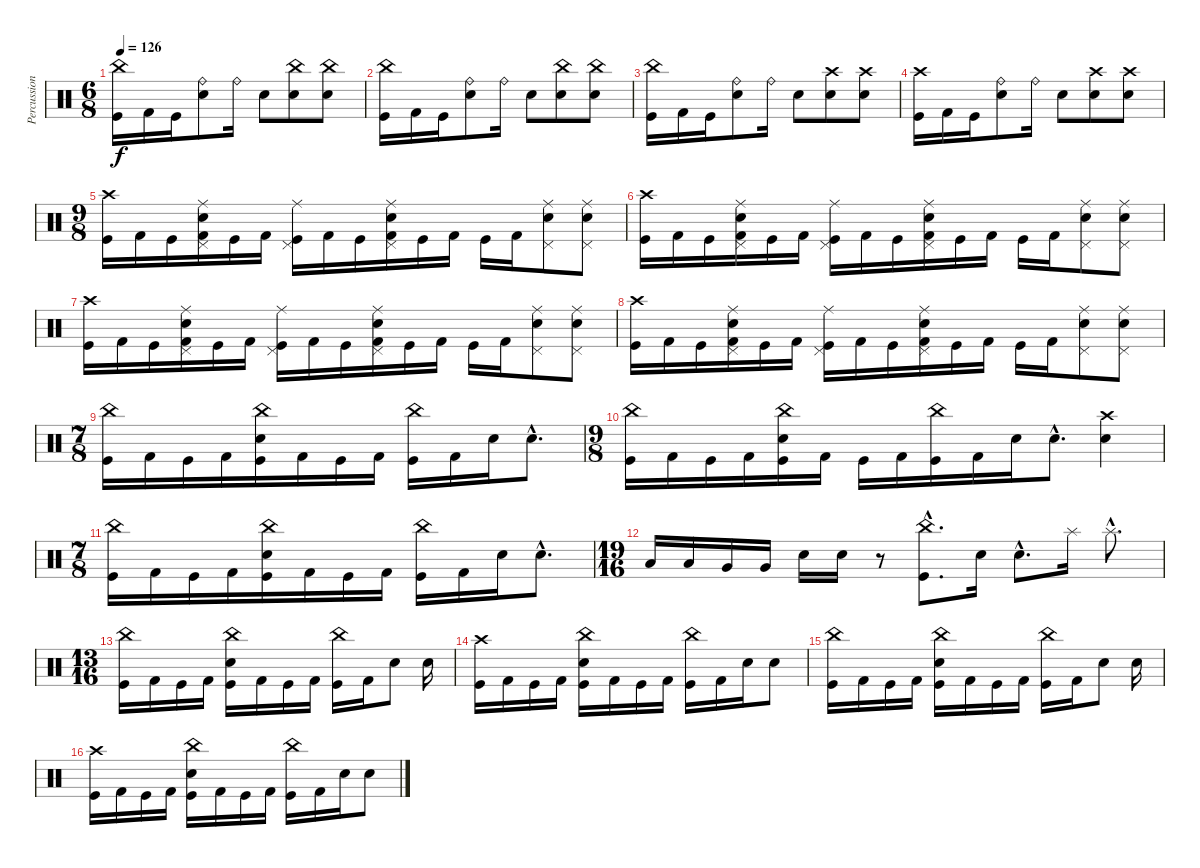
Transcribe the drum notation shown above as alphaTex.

\track ("Percussion" "Percussion") {instrument percussion}
\staff {score}
\articulation defaults
\ts (6 8)
\tempo 126
\clef neutral
\ks c
("China (hit)" "Kick (hit)").16{dy f} "Kick (hit) 2".16 "Kick (hit)".16 ("Ride (bell)" "Snare (hit) 2").8 "Ride (bell)".16 "Snare (hit) 2".8 ("China (hit)" "Snare (hit) 2").8 ("China (hit)" "Snare (hit) 2").8 |
("China (hit)" "Kick (hit)").16 "Kick (hit) 2".16 "Kick (hit)".16 ("Ride (bell)" "Snare (hit) 2").8 "Ride (bell)".16 "Snare (hit) 2".8 ("China (hit)" "Snare (hit) 2").8 ("China (hit)" "Snare (hit) 2").8 |
("China (hit)" "Kick (hit)").16 "Kick (hit) 2".16 "Kick (hit)".16 ("Ride (bell)" "Snare (hit) 2").8 "Ride (bell)".16 "Snare (hit) 2".8 ("Crash high (hit)" "Snare (hit) 2").8 ("Crash high (hit)" "Snare (hit) 2").8 |
("Crash high (hit)" "Kick (hit)").16 "Kick (hit) 2".16 "Kick (hit)".16 ("Ride (bell)" "Snare (hit) 2").8 "Ride (bell)".16 "Snare (hit) 2".8 ("Crash high (hit)" "Snare (hit) 2").8 ("Crash high (hit)" "Snare (hit) 2").8 |
\ts (9 8)
("Crash high (hit)" "Kick (hit)").16 "Kick (hit) 2".16 "Kick (hit)".16 ("Snare (hit) 2" "Pedal Hi-Hat (hit)" "Ride (middle)" "Kick (hit) 2").16 "Kick (hit)".16 "Kick (hit) 2".16 ("Pedal Hi-Hat (hit)" "Ride (middle)" "Kick (hit)").16 "Kick (hit) 2".16 "Kick (hit)".16 ("Snare (hit) 2" "Pedal Hi-Hat (hit)" "Ride (middle)" "Kick (hit) 2").16 "Kick (hit)".16 "Kick (hit) 2".16 "Kick (hit)".16 "Kick (hit) 2".16 ("Snare (hit) 2" "Ride (middle)" "Pedal Hi-Hat (hit)").8 ("Snare (hit) 2" "Ride (middle)" "Pedal Hi-Hat (hit)").8 |
("Crash high (hit)" "Kick (hit)").16 "Kick (hit) 2".16 "Kick (hit)".16 ("Snare (hit) 2" "Pedal Hi-Hat (hit)" "Ride (middle)" "Kick (hit) 2").16 "Kick (hit)".16 "Kick (hit) 2".16 ("Pedal Hi-Hat (hit)" "Ride (middle)" "Kick (hit)").16 "Kick (hit) 2".16 "Kick (hit)".16 ("Snare (hit) 2" "Pedal Hi-Hat (hit)" "Ride (middle)" "Kick (hit) 2").16 "Kick (hit)".16 "Kick (hit) 2".16 "Kick (hit)".16 "Kick (hit) 2".16 ("Snare (hit) 2" "Ride (middle)" "Pedal Hi-Hat (hit)").8 ("Snare (hit) 2" "Ride (middle)" "Pedal Hi-Hat (hit)").8 |
("Crash high (hit)" "Kick (hit)").16 "Kick (hit) 2".16 "Kick (hit)".16 ("Snare (hit) 2" "Pedal Hi-Hat (hit)" "Ride (middle)" "Kick (hit) 2").16 "Kick (hit)".16 "Kick (hit) 2".16 ("Pedal Hi-Hat (hit)" "Ride (middle)" "Kick (hit)").16 "Kick (hit) 2".16 "Kick (hit)".16 ("Snare (hit) 2" "Pedal Hi-Hat (hit)" "Ride (middle)" "Kick (hit) 2").16 "Kick (hit)".16 "Kick (hit) 2".16 "Kick (hit)".16 "Kick (hit) 2".16 ("Snare (hit) 2" "Ride (middle)" "Pedal Hi-Hat (hit)").8 ("Snare (hit) 2" "Ride (middle)" "Pedal Hi-Hat (hit)").8 |
("Crash high (hit)" "Kick (hit)").16 "Kick (hit) 2".16 "Kick (hit)".16 ("Snare (hit) 2" "Pedal Hi-Hat (hit)" "Ride (middle)" "Kick (hit) 2").16 "Kick (hit)".16 "Kick (hit) 2".16 ("Pedal Hi-Hat (hit)" "Ride (middle)" "Kick (hit)").16 "Kick (hit) 2".16 "Kick (hit)".16 ("Snare (hit) 2" "Pedal Hi-Hat (hit)" "Ride (middle)" "Kick (hit) 2").16 "Kick (hit)".16 "Kick (hit) 2".16 "Kick (hit)".16 "Kick (hit) 2".16 ("Snare (hit) 2" "Ride (middle)" "Pedal Hi-Hat (hit)").8 ("Snare (hit) 2" "Ride (middle)" "Pedal Hi-Hat (hit)").8 |
\ts (7 8)
("China (hit)" "Kick (hit)").16 "Kick (hit) 2".16 "Kick (hit)".16 "Kick (hit) 2".16 ("China (hit)" "Kick (hit)" "Snare (hit) 2").16 "Kick (hit) 2".16 "Kick (hit)".16 "Kick (hit) 2".16 ("China (hit)" "Kick (hit)").16 "Kick (hit) 2".16 "Snare (hit) 2".16 "Snare (hit) 2"{hac}.8{d} |
\ts (9 8)
("China (hit)" "Kick (hit)").16 "Kick (hit) 2".16 "Kick (hit)".16 "Kick (hit) 2".16 ("China (hit)" "Kick (hit)" "Snare (hit) 2").16 "Kick (hit) 2".16 "Kick (hit)".16 "Kick (hit) 2".16 ("China (hit)" "Kick (hit)").16 "Kick (hit) 2".16 "Snare (hit) 2".16 "Snare (hit) 2"{hac}.8{d} ("Crash high (hit)" "Snare (hit) 2").4 |
\ts (7 8)
("China (hit)" "Kick (hit)").16 "Kick (hit) 2".16 "Kick (hit)".16 "Kick (hit) 2".16 ("China (hit)" "Kick (hit)" "Snare (hit) 2").16 "Kick (hit) 2".16 "Kick (hit)".16 "Kick (hit) 2".16 ("China (hit)" "Kick (hit)").16 "Kick (hit) 2".16 "Snare (hit) 2".16 "Snare (hit) 2"{hac}.8{d} |
\ts (19 16)
"Low Tom (hit)".16 "Low Tom (hit)".16 "Very Low Tom (hit)".16 "Very Low Tom (hit)".16 "Snare (hit) 2".16 "Snare (hit) 2".16 r.8 ("China (hit)"{hac} "Kick (hit)"{hac}).8{d} "Snare (hit) 2".16 "Snare (hit) 2"{hac}.8{d} "Splash (hit)".16 "Splash (hit)"{hac}.8{d} |
\ts (13 16)
("China (hit)" "Kick (hit)").16 "Kick (hit) 2".16 "Kick (hit)".16 "Kick (hit) 2".16 ("China (hit)" "Kick (hit)" "Snare (hit) 2").16 "Kick (hit) 2".16 "Kick (hit)".16 "Kick (hit) 2".16 ("China (hit)" "Kick (hit)").16 "Kick (hit) 2".16 "Snare (hit) 2".8 "Snare (hit) 2".16 |
("Crash high (hit)" "Kick (hit)").16 "Kick (hit) 2".16 "Kick (hit)".16 "Kick (hit) 2".16 ("China (hit)" "Kick (hit)" "Snare (hit) 2").16 "Kick (hit) 2".16 "Kick (hit)".16 "Kick (hit) 2".16 ("China (hit)" "Kick (hit)").16 "Kick (hit) 2".16 "Snare (hit) 2".16 "Snare (hit) 2".8 |
("China (hit)" "Kick (hit)").16 "Kick (hit) 2".16 "Kick (hit)".16 "Kick (hit) 2".16 ("China (hit)" "Kick (hit)" "Snare (hit) 2").16 "Kick (hit) 2".16 "Kick (hit)".16 "Kick (hit) 2".16 ("China (hit)" "Kick (hit)").16 "Kick (hit) 2".16 "Snare (hit) 2".8 "Snare (hit) 2".16 |
("Crash high (hit)" "Kick (hit)").16 "Kick (hit) 2".16 "Kick (hit)".16 "Kick (hit) 2".16 ("China (hit)" "Kick (hit)" "Snare (hit) 2").16 "Kick (hit) 2".16 "Kick (hit)".16 "Kick (hit) 2".16 ("China (hit)" "Kick (hit)").16 "Kick (hit) 2".16 "Snare (hit) 2".16 "Snare (hit) 2".8
